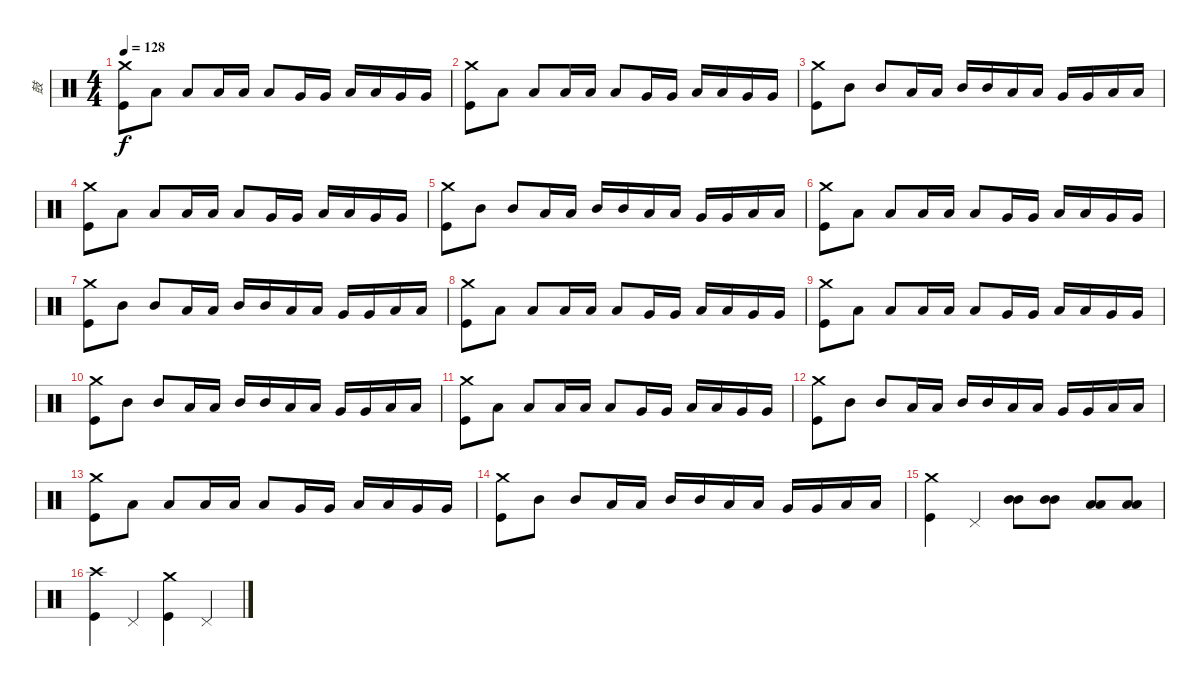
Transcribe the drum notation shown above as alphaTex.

\track ("鼓" "鼓") {instrument percussion}
\staff {score}
\articulation defaults
\ts (4 4)
\tempo 128
\clef neutral
\ks c
("Crash medium (hit)" "Kick (hit)").8{dy f} "Low Tom (hit)".8 "Low Tom (hit)".8 "Low Tom (hit)".16 "Low Tom (hit)".16 "Low Tom (hit)".8 "Very Low Tom (hit)".16 "Very Low Tom (hit)".16 "Low Tom (hit)".16 "Low Tom (hit)".16 "Very Low Tom (hit)".16 "Very Low Tom (hit)".16 |
("Crash medium (hit)" "Kick (hit)").8 "Low Tom (hit)".8 "Low Tom (hit)".8 "Low Tom (hit)".16 "Low Tom (hit)".16 "Low Tom (hit)".8 "Very Low Tom (hit)".16 "Very Low Tom (hit)".16 "Low Tom (hit)".16 "Low Tom (hit)".16 "Very Low Tom (hit)".16 "Very Low Tom (hit)".16 |
("Crash medium (hit)" "Kick (hit)").8 "Mid Tom (hit)".8 "Mid Tom (hit)".8 "Low Tom (hit)".16 "Low Tom (hit)".16 "Mid Tom (hit)".16 "Mid Tom (hit)".16 "Low Tom (hit)".16 "Low Tom (hit)".16 "Very Low Tom (hit)".16 "Very Low Tom (hit)".16 "Low Floor Tom (hit)".16 "Low Floor Tom (hit)".16 |
("Crash medium (hit)" "Kick (hit)").8 "Low Tom (hit)".8 "Low Tom (hit)".8 "Low Tom (hit)".16 "Low Tom (hit)".16 "Low Tom (hit)".8 "Very Low Tom (hit)".16 "Very Low Tom (hit)".16 "Low Tom (hit)".16 "Low Tom (hit)".16 "Very Low Tom (hit)".16 "Very Low Tom (hit)".16 |
("Crash medium (hit)" "Kick (hit)").8 "Mid Tom (hit)".8 "Mid Tom (hit)".8 "Low Tom (hit)".16 "Low Tom (hit)".16 "Mid Tom (hit)".16 "Mid Tom (hit)".16 "Low Tom (hit)".16 "Low Tom (hit)".16 "Very Low Tom (hit)".16 "Very Low Tom (hit)".16 "Low Floor Tom (hit)".16 "Low Floor Tom (hit)".16 |
("Crash medium (hit)" "Kick (hit)").8 "Low Tom (hit)".8 "Low Tom (hit)".8 "Low Tom (hit)".16 "Low Tom (hit)".16 "Low Tom (hit)".8 "Very Low Tom (hit)".16 "Very Low Tom (hit)".16 "Low Tom (hit)".16 "Low Tom (hit)".16 "Very Low Tom (hit)".16 "Very Low Tom (hit)".16 |
("Crash medium (hit)" "Kick (hit)").8 "Mid Tom (hit)".8 "Mid Tom (hit)".8 "Low Tom (hit)".16 "Low Tom (hit)".16 "Mid Tom (hit)".16 "Mid Tom (hit)".16 "Low Tom (hit)".16 "Low Tom (hit)".16 "Very Low Tom (hit)".16 "Very Low Tom (hit)".16 "Low Floor Tom (hit)".16 "Low Floor Tom (hit)".16 |
("Crash medium (hit)" "Kick (hit)").8 "Low Tom (hit)".8 "Low Tom (hit)".8 "Low Tom (hit)".16 "Low Tom (hit)".16 "Low Tom (hit)".8 "Very Low Tom (hit)".16 "Very Low Tom (hit)".16 "Low Tom (hit)".16 "Low Tom (hit)".16 "Very Low Tom (hit)".16 "Very Low Tom (hit)".16 |
("Crash medium (hit)" "Kick (hit)").8 "Low Tom (hit)".8 "Low Tom (hit)".8 "Low Tom (hit)".16 "Low Tom (hit)".16 "Low Tom (hit)".8 "Very Low Tom (hit)".16 "Very Low Tom (hit)".16 "Low Tom (hit)".16 "Low Tom (hit)".16 "Very Low Tom (hit)".16 "Very Low Tom (hit)".16 |
("Crash medium (hit)" "Kick (hit)").8 "Mid Tom (hit)".8 "Mid Tom (hit)".8 "Low Tom (hit)".16 "Low Tom (hit)".16 "Mid Tom (hit)".16 "Mid Tom (hit)".16 "Low Tom (hit)".16 "Low Tom (hit)".16 "Very Low Tom (hit)".16 "Very Low Tom (hit)".16 "Low Floor Tom (hit)".16 "Low Floor Tom (hit)".16 |
("Crash medium (hit)" "Kick (hit)").8 "Low Tom (hit)".8 "Low Tom (hit)".8 "Low Tom (hit)".16 "Low Tom (hit)".16 "Low Tom (hit)".8 "Very Low Tom (hit)".16 "Very Low Tom (hit)".16 "Low Tom (hit)".16 "Low Tom (hit)".16 "Very Low Tom (hit)".16 "Very Low Tom (hit)".16 |
("Crash medium (hit)" "Kick (hit)").8 "Mid Tom (hit)".8 "Mid Tom (hit)".8 "Low Tom (hit)".16 "Low Tom (hit)".16 "Mid Tom (hit)".16 "Mid Tom (hit)".16 "Low Tom (hit)".16 "Low Tom (hit)".16 "Very Low Tom (hit)".16 "Very Low Tom (hit)".16 "Low Floor Tom (hit)".16 "Low Floor Tom (hit)".16 |
("Crash medium (hit)" "Kick (hit)").8 "Low Tom (hit)".8 "Low Tom (hit)".8 "Low Tom (hit)".16 "Low Tom (hit)".16 "Low Tom (hit)".8 "Very Low Tom (hit)".16 "Very Low Tom (hit)".16 "Low Tom (hit)".16 "Low Tom (hit)".16 "Very Low Tom (hit)".16 "Very Low Tom (hit)".16 |
("Crash medium (hit)" "Kick (hit)").8 "Mid Tom (hit)".8 "Mid Tom (hit)".8 "Low Tom (hit)".16 "Low Tom (hit)".16 "Mid Tom (hit)".16 "Mid Tom (hit)".16 "Low Tom (hit)".16 "Low Tom (hit)".16 "Very Low Tom (hit)".16 "Very Low Tom (hit)".16 "Low Floor Tom (hit)".16 "Low Floor Tom (hit)".16 |
("Crash medium (hit)" "Kick (hit)").4 "Pedal Hi-Hat (hit)".4 ("Mid Tom (hit)" "Mid Tom (hit)").8 ("Mid Tom (hit)" "Mid Tom (hit)").8 ("Low Tom (hit)" "Low Tom (hit)").8 ("Low Tom (hit)" "Low Tom (hit)").8 |
("Crash high (hit)" "Kick (hit)").4 "Pedal Hi-Hat (hit)".4 ("Crash medium (hit)" "Kick (hit)").4 "Pedal Hi-Hat (hit)".4
